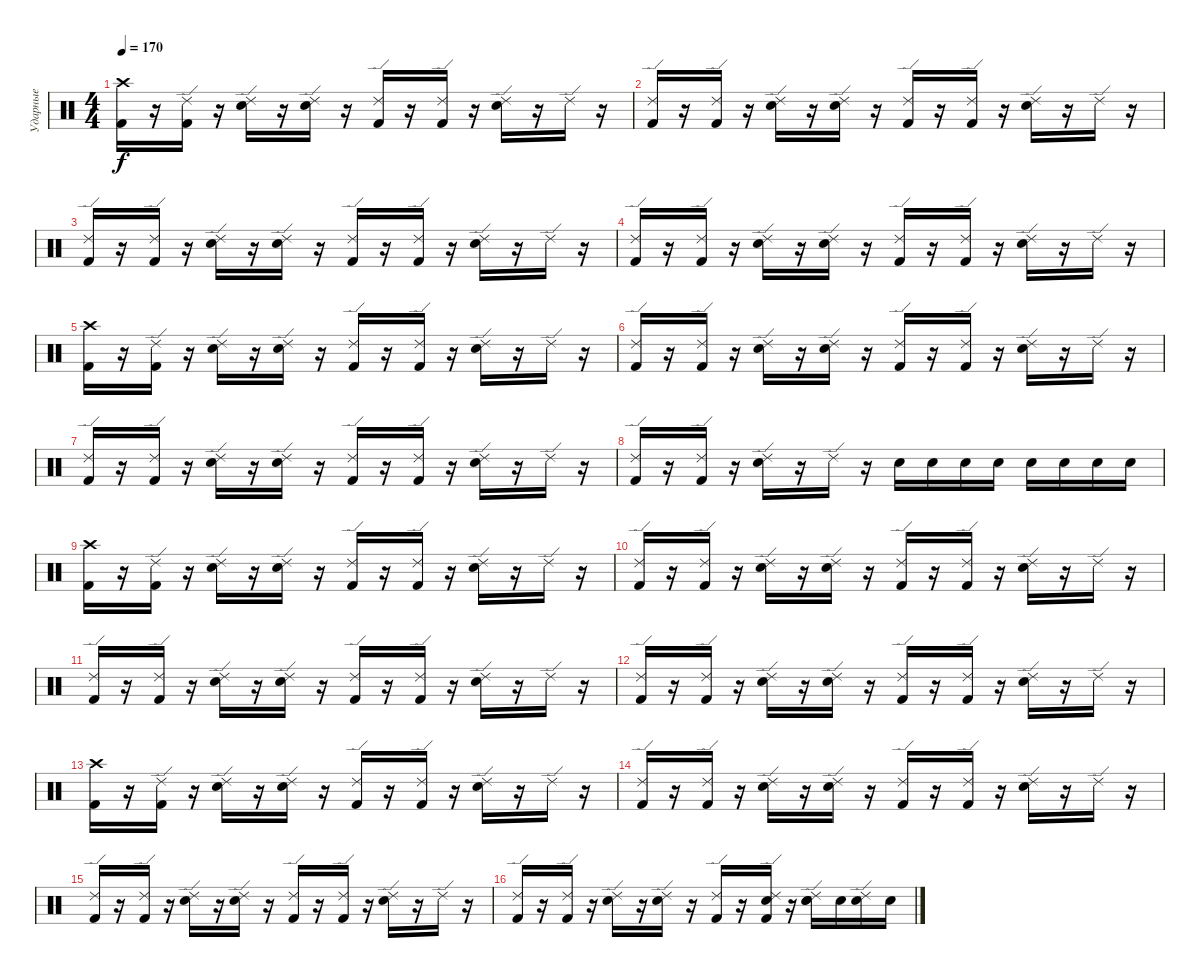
\track ("Ударные" "Ударные") {instrument percussion}
\staff {score}
\articulation defaults
\ts (4 4)
\tempo 170
\clef neutral
\ks c
("Crash high (hit)" "Kick (hit) 2").16{dy f} r.16 ("Ride (edge) 2" "Kick (hit) 2").16 r.16 ("Ride (edge) 2" "Snare (hit) 2").16 r.16 ("Ride (edge) 2" "Snare (hit) 2").16 r.16 ("Ride (edge) 2" "Kick (hit) 2").16 r.16 ("Ride (edge) 2" "Kick (hit) 2").16 r.16 ("Ride (edge) 2" "Snare (hit) 2").16 r.16 "Ride (edge) 2".16 r.16 |
("Ride (edge) 2" "Kick (hit) 2").16 r.16 ("Ride (edge) 2" "Kick (hit) 2").16 r.16 ("Ride (edge) 2" "Snare (hit) 2").16 r.16 ("Ride (edge) 2" "Snare (hit) 2").16 r.16 ("Ride (edge) 2" "Kick (hit) 2").16 r.16 ("Ride (edge) 2" "Kick (hit) 2").16 r.16 ("Ride (edge) 2" "Snare (hit) 2").16 r.16 "Ride (edge) 2".16 r.16 |
("Ride (edge) 2" "Kick (hit) 2").16 r.16 ("Ride (edge) 2" "Kick (hit) 2").16 r.16 ("Ride (edge) 2" "Snare (hit) 2").16 r.16 ("Ride (edge) 2" "Snare (hit) 2").16 r.16 ("Ride (edge) 2" "Kick (hit) 2").16 r.16 ("Ride (edge) 2" "Kick (hit) 2").16 r.16 ("Ride (edge) 2" "Snare (hit) 2").16 r.16 "Ride (edge) 2".16 r.16 |
("Ride (edge) 2" "Kick (hit) 2").16 r.16 ("Ride (edge) 2" "Kick (hit) 2").16 r.16 ("Ride (edge) 2" "Snare (hit) 2").16 r.16 ("Ride (edge) 2" "Snare (hit) 2").16 r.16 ("Ride (edge) 2" "Kick (hit) 2").16 r.16 ("Ride (edge) 2" "Kick (hit) 2").16 r.16 ("Ride (edge) 2" "Snare (hit) 2").16 r.16 "Ride (edge) 2".16 r.16 |
("Crash high (hit)" "Kick (hit) 2").16 r.16 ("Ride (edge) 2" "Kick (hit) 2").16 r.16 ("Ride (edge) 2" "Snare (hit) 2").16 r.16 ("Ride (edge) 2" "Snare (hit) 2").16 r.16 ("Ride (edge) 2" "Kick (hit) 2").16 r.16 ("Ride (edge) 2" "Kick (hit) 2").16 r.16 ("Ride (edge) 2" "Snare (hit) 2").16 r.16 "Ride (edge) 2".16 r.16 |
("Ride (edge) 2" "Kick (hit) 2").16 r.16 ("Ride (edge) 2" "Kick (hit) 2").16 r.16 ("Ride (edge) 2" "Snare (hit) 2").16 r.16 ("Ride (edge) 2" "Snare (hit) 2").16 r.16 ("Ride (edge) 2" "Kick (hit) 2").16 r.16 ("Ride (edge) 2" "Kick (hit) 2").16 r.16 ("Ride (edge) 2" "Snare (hit) 2").16 r.16 "Ride (edge) 2".16 r.16 |
("Ride (edge) 2" "Kick (hit) 2").16 r.16 ("Ride (edge) 2" "Kick (hit) 2").16 r.16 ("Ride (edge) 2" "Snare (hit) 2").16 r.16 ("Ride (edge) 2" "Snare (hit) 2").16 r.16 ("Ride (edge) 2" "Kick (hit) 2").16 r.16 ("Ride (edge) 2" "Kick (hit) 2").16 r.16 ("Ride (edge) 2" "Snare (hit) 2").16 r.16 "Ride (edge) 2".16 r.16 |
("Ride (edge) 2" "Kick (hit) 2").16 r.16 ("Ride (edge) 2" "Kick (hit) 2").16 r.16 ("Ride (edge) 2" "Snare (hit) 2").16 r.16 "Ride (edge) 2".16 r.16 "Snare (hit) 2".16 "Snare (hit) 2".16 "Snare (hit) 2".16 "Snare (hit) 2".16 "Snare (hit) 2".16 "Snare (hit) 2".16 "Snare (hit) 2".16 "Snare (hit) 2".16 |
("Crash high (hit)" "Kick (hit) 2").16 r.16 ("Ride (edge) 2" "Kick (hit) 2").16 r.16 ("Ride (edge) 2" "Snare (hit) 2").16 r.16 ("Ride (edge) 2" "Snare (hit) 2").16 r.16 ("Ride (edge) 2" "Kick (hit) 2").16 r.16 ("Ride (edge) 2" "Kick (hit) 2").16 r.16 ("Ride (edge) 2" "Snare (hit) 2").16 r.16 "Ride (edge) 2".16 r.16 |
("Ride (edge) 2" "Kick (hit) 2").16 r.16 ("Ride (edge) 2" "Kick (hit) 2").16 r.16 ("Ride (edge) 2" "Snare (hit) 2").16 r.16 ("Ride (edge) 2" "Snare (hit) 2").16 r.16 ("Ride (edge) 2" "Kick (hit) 2").16 r.16 ("Ride (edge) 2" "Kick (hit) 2").16 r.16 ("Ride (edge) 2" "Snare (hit) 2").16 r.16 "Ride (edge) 2".16 r.16 |
("Ride (edge) 2" "Kick (hit) 2").16 r.16 ("Ride (edge) 2" "Kick (hit) 2").16 r.16 ("Ride (edge) 2" "Snare (hit) 2").16 r.16 ("Ride (edge) 2" "Snare (hit) 2").16 r.16 ("Ride (edge) 2" "Kick (hit) 2").16 r.16 ("Ride (edge) 2" "Kick (hit) 2").16 r.16 ("Ride (edge) 2" "Snare (hit) 2").16 r.16 "Ride (edge) 2".16 r.16 |
("Ride (edge) 2" "Kick (hit) 2").16 r.16 ("Ride (edge) 2" "Kick (hit) 2").16 r.16 ("Ride (edge) 2" "Snare (hit) 2").16 r.16 ("Ride (edge) 2" "Snare (hit) 2").16 r.16 ("Ride (edge) 2" "Kick (hit) 2").16 r.16 ("Ride (edge) 2" "Kick (hit) 2").16 r.16 ("Ride (edge) 2" "Snare (hit) 2").16 r.16 "Ride (edge) 2".16 r.16 |
("Crash high (hit)" "Kick (hit) 2").16 r.16 ("Ride (edge) 2" "Kick (hit) 2").16 r.16 ("Ride (edge) 2" "Snare (hit) 2").16 r.16 ("Ride (edge) 2" "Snare (hit) 2").16 r.16 ("Ride (edge) 2" "Kick (hit) 2").16 r.16 ("Ride (edge) 2" "Kick (hit) 2").16 r.16 ("Ride (edge) 2" "Snare (hit) 2").16 r.16 "Ride (edge) 2".16 r.16 |
("Ride (edge) 2" "Kick (hit) 2").16 r.16 ("Ride (edge) 2" "Kick (hit) 2").16 r.16 ("Ride (edge) 2" "Snare (hit) 2").16 r.16 ("Ride (edge) 2" "Snare (hit) 2").16 r.16 ("Ride (edge) 2" "Kick (hit) 2").16 r.16 ("Ride (edge) 2" "Kick (hit) 2").16 r.16 ("Ride (edge) 2" "Snare (hit) 2").16 r.16 "Ride (edge) 2".16 r.16 |
("Ride (edge) 2" "Kick (hit) 2").16 r.16 ("Ride (edge) 2" "Kick (hit) 2").16 r.16 ("Ride (edge) 2" "Snare (hit) 2").16 r.16 ("Ride (edge) 2" "Snare (hit) 2").16 r.16 ("Ride (edge) 2" "Kick (hit) 2").16 r.16 ("Ride (edge) 2" "Kick (hit) 2").16 r.16 ("Ride (edge) 2" "Snare (hit) 2").16 r.16 "Ride (edge) 2".16 r.16 |
("Ride (edge) 2" "Kick (hit) 2").16 r.16 ("Ride (edge) 2" "Kick (hit) 2").16 r.16 ("Ride (edge) 2" "Snare (hit) 2").16 r.16 ("Ride (edge) 2" "Snare (hit) 2").16 r.16 ("Ride (edge) 2" "Kick (hit) 2").16 r.16 ("Ride (edge) 2" "Snare (hit) 2" "Kick (hit) 2").16 r.16 ("Ride (edge) 2" "Snare (hit) 2" "Snare (hit) 2").16 "Snare (hit) 2".16 ("Ride (edge) 2" "Snare (hit) 2").16 "Snare (hit) 2".16
